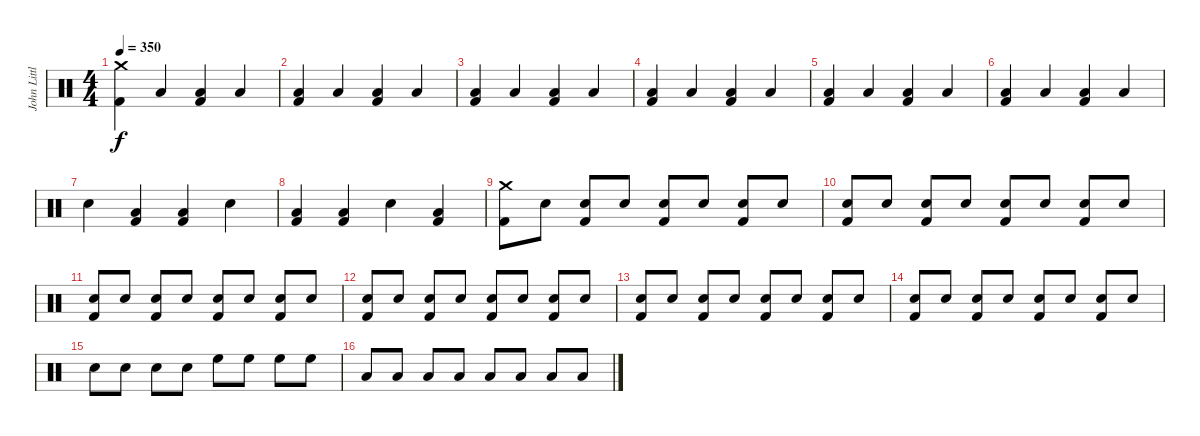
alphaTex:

\track ("John Littler - Drums" "John Littl") {instrument percussion}
\staff {score}
\articulation defaults
\ts (4 4)
\tempo 350
\clef neutral
\ks c
("Crash medium (hit)" "Kick (hit) 2").4{dy f} "Low Floor Tom (hit)".4 ("Low Floor Tom (hit)" "Kick (hit) 2").4 "Low Floor Tom (hit)".4 |
("Low Floor Tom (hit)" "Kick (hit) 2").4 "Low Floor Tom (hit)".4 ("Low Floor Tom (hit)" "Kick (hit) 2").4 "Low Floor Tom (hit)".4 |
("Low Floor Tom (hit)" "Kick (hit) 2").4 "Low Floor Tom (hit)".4 ("Low Floor Tom (hit)" "Kick (hit) 2").4 "Low Floor Tom (hit)".4 |
("Low Floor Tom (hit)" "Kick (hit) 2").4 "Low Floor Tom (hit)".4 ("Low Floor Tom (hit)" "Kick (hit) 2").4 "Low Floor Tom (hit)".4 |
("Low Floor Tom (hit)" "Kick (hit) 2").4 "Low Floor Tom (hit)".4 ("Low Floor Tom (hit)" "Kick (hit) 2").4 "Low Floor Tom (hit)".4 |
("Low Floor Tom (hit)" "Kick (hit) 2").4 "Low Floor Tom (hit)".4 ("Low Floor Tom (hit)" "Kick (hit) 2").4 "Low Floor Tom (hit)".4 |
"Snare (hit) 2".4 ("Low Floor Tom (hit)" "Kick (hit) 2").4 ("Low Floor Tom (hit)" "Kick (hit) 2").4 "Snare (hit) 2".4 |
("Low Floor Tom (hit)" "Kick (hit) 2").4 ("Low Floor Tom (hit)" "Kick (hit) 2").4 "Snare (hit) 2".4 ("Low Floor Tom (hit)" "Kick (hit) 2").4 |
("Crash medium (hit)" "Kick (hit) 2").8 "Snare (hit) 2".8 ("Snare (hit) 2" "Kick (hit) 2").8 "Snare (hit) 2".8 ("Snare (hit) 2" "Kick (hit) 2").8 "Snare (hit) 2".8 ("Snare (hit) 2" "Kick (hit) 2").8 "Snare (hit) 2".8 |
("Snare (hit) 2" "Kick (hit) 2").8 "Snare (hit) 2".8 ("Snare (hit) 2" "Kick (hit) 2").8 "Snare (hit) 2".8 ("Snare (hit) 2" "Kick (hit) 2").8 "Snare (hit) 2".8 ("Snare (hit) 2" "Kick (hit) 2").8 "Snare (hit) 2".8 |
("Snare (hit) 2" "Kick (hit) 2").8 "Snare (hit) 2".8 ("Snare (hit) 2" "Kick (hit) 2").8 "Snare (hit) 2".8 ("Snare (hit) 2" "Kick (hit) 2").8 "Snare (hit) 2".8 ("Snare (hit) 2" "Kick (hit) 2").8 "Snare (hit) 2".8 |
("Snare (hit) 2" "Kick (hit) 2").8 "Snare (hit) 2".8 ("Snare (hit) 2" "Kick (hit) 2").8 "Snare (hit) 2".8 ("Snare (hit) 2" "Kick (hit) 2").8 "Snare (hit) 2".8 ("Snare (hit) 2" "Kick (hit) 2").8 "Snare (hit) 2".8 |
("Snare (hit) 2" "Kick (hit) 2").8 "Snare (hit) 2".8 ("Snare (hit) 2" "Kick (hit) 2").8 "Snare (hit) 2".8 ("Snare (hit) 2" "Kick (hit) 2").8 "Snare (hit) 2".8 ("Snare (hit) 2" "Kick (hit) 2").8 "Snare (hit) 2".8 |
("Snare (hit) 2" "Kick (hit) 2").8 "Snare (hit) 2".8 ("Snare (hit) 2" "Kick (hit) 2").8 "Snare (hit) 2".8 ("Snare (hit) 2" "Kick (hit) 2").8 "Snare (hit) 2".8 ("Snare (hit) 2" "Kick (hit) 2").8 "Snare (hit) 2".8 |
"Snare (hit) 2".8 "Snare (hit) 2".8 "Snare (hit) 2".8 "Snare (hit) 2".8 "High Floor Tom (hit)".8 "High Floor Tom (hit)".8 "High Floor Tom (hit)".8 "High Floor Tom (hit)".8 |
"Low Tom (hit)".8 "Low Tom (hit)".8 "Low Tom (hit)".8 "Low Tom (hit)".8 "Low Floor Tom (hit)".8 "Low Floor Tom (hit)".8 "Low Floor Tom (hit)".8 "Low Floor Tom (hit)".8
